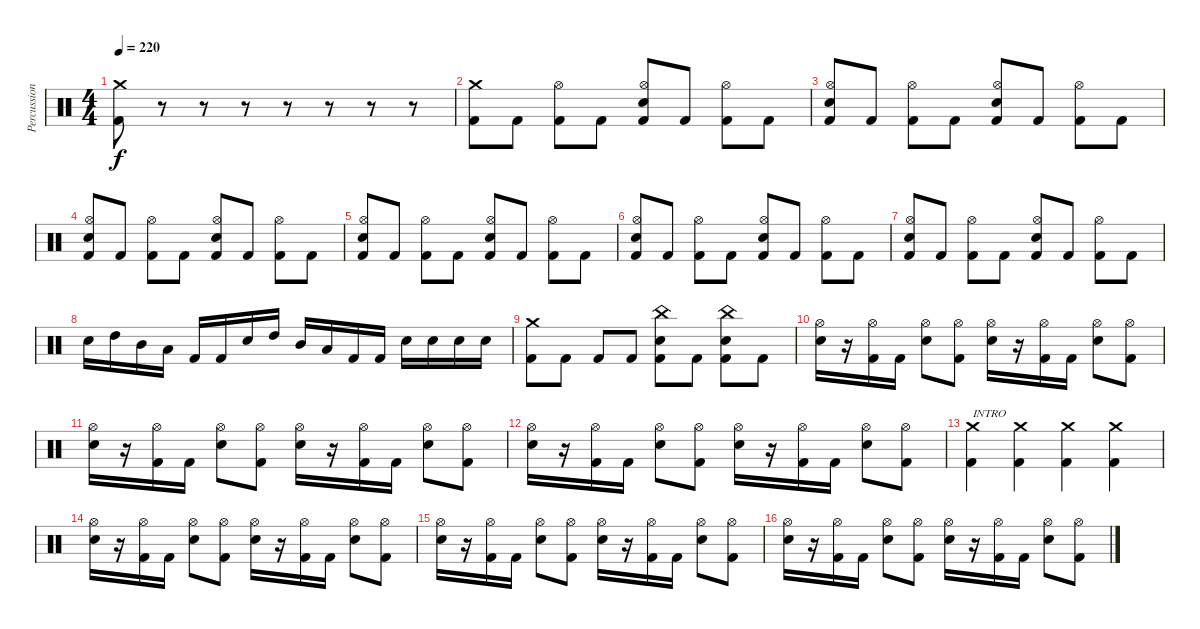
\track ("Percussion" "Percussion") {solo instrument percussion}
\staff {score}
\articulation defaults
\ts (4 4)
\tempo 220
\clef neutral
\ks c
("Crash medium (hit)" "Kick (hit) 2").8{dy f} r.8 r.8 r.8 r.8 r.8 r.8 r.8 |
("Crash medium (hit)" "Kick (hit) 2").8 "Kick (hit) 2".8 ("Hi-Hat (open)" "Kick (hit) 2").8 "Kick (hit) 2".8 ("Hi-Hat (open)" "Electric Snare (hit)" "Kick (hit) 2").8 "Kick (hit) 2".8 ("Hi-Hat (open)" "Kick (hit) 2").8 "Kick (hit) 2".8 |
("Hi-Hat (open)" "Electric Snare (hit)" "Kick (hit) 2").8 "Kick (hit) 2".8 ("Hi-Hat (open)" "Kick (hit) 2").8 "Kick (hit) 2".8 ("Hi-Hat (open)" "Electric Snare (hit)" "Kick (hit) 2").8 "Kick (hit) 2".8 ("Hi-Hat (open)" "Kick (hit) 2").8 "Kick (hit) 2".8 |
("Hi-Hat (open)" "Electric Snare (hit)" "Kick (hit) 2").8 "Kick (hit) 2".8 ("Hi-Hat (open)" "Kick (hit) 2").8 "Kick (hit) 2".8 ("Hi-Hat (open)" "Electric Snare (hit)" "Kick (hit) 2").8 "Kick (hit) 2".8 ("Hi-Hat (open)" "Kick (hit) 2").8 "Kick (hit) 2".8 |
("Hi-Hat (open)" "Electric Snare (hit)" "Kick (hit) 2").8 "Kick (hit) 2".8 ("Hi-Hat (open)" "Kick (hit) 2").8 "Kick (hit) 2".8 ("Hi-Hat (open)" "Electric Snare (hit)" "Kick (hit) 2").8 "Kick (hit) 2".8 ("Hi-Hat (open)" "Kick (hit) 2").8 "Kick (hit) 2".8 |
("Hi-Hat (open)" "Electric Snare (hit)" "Kick (hit) 2").8 "Kick (hit) 2".8 ("Hi-Hat (open)" "Kick (hit) 2").8 "Kick (hit) 2".8 ("Hi-Hat (open)" "Electric Snare (hit)" "Kick (hit) 2").8 "Kick (hit) 2".8 ("Hi-Hat (open)" "Kick (hit) 2").8 "Kick (hit) 2".8 |
("Hi-Hat (open)" "Electric Snare (hit)" "Kick (hit) 2").8 "Kick (hit) 2".8 ("Hi-Hat (open)" "Kick (hit) 2").8 "Kick (hit) 2".8 ("Hi-Hat (open)" "Electric Snare (hit)" "Kick (hit) 2").8 "Kick (hit) 2".8 ("Hi-Hat (open)" "Kick (hit) 2").8 "Kick (hit) 2".8 |
"Electric Snare (hit)".16 "High Tom (hit)".16 "Mid Tom (hit)".16 "Low Floor Tom (hit)".16 "Kick (hit) 2".16 "Kick (hit) 2".16 "Electric Snare (hit)".16 "High Tom (hit)".16 "Mid Tom (hit)".16 "Low Floor Tom (hit)".16 "Kick (hit) 2".16 "Kick (hit) 2".16 "Electric Snare (hit)".16 "Electric Snare (hit)".16 "Electric Snare (hit)".16 "Electric Snare (hit)".16 |
("Crash medium (hit)" "Kick (hit) 2").8 "Kick (hit) 2".8 "Kick (hit) 2".8 "Kick (hit) 2".8 ("China (hit)" "Electric Snare (hit)" "Kick (hit) 2").8 "Kick (hit) 2".8 ("China (hit)" "Electric Snare (hit)" "Kick (hit) 2").8 "Kick (hit) 2".8 |
("Hi-Hat (open)" "Electric Snare (hit)").16 r.16 ("Hi-Hat (open)" "Kick (hit) 2").16 "Kick (hit) 2".16 ("Hi-Hat (open)" "Electric Snare (hit)").8 ("Hi-Hat (open)" "Kick (hit) 2").8 ("Hi-Hat (open)" "Electric Snare (hit)").16 r.16 ("Hi-Hat (open)" "Kick (hit) 2").16 "Kick (hit) 2".16 ("Hi-Hat (open)" "Electric Snare (hit)").8 ("Hi-Hat (open)" "Kick (hit) 2").8 |
("Hi-Hat (open)" "Electric Snare (hit)").16 r.16 ("Hi-Hat (open)" "Kick (hit) 2").16 "Kick (hit) 2".16 ("Hi-Hat (open)" "Electric Snare (hit)").8 ("Hi-Hat (open)" "Kick (hit) 2").8 ("Hi-Hat (open)" "Electric Snare (hit)").16 r.16 ("Hi-Hat (open)" "Kick (hit) 2").16 "Kick (hit) 2".16 ("Hi-Hat (open)" "Electric Snare (hit)").8 ("Hi-Hat (open)" "Kick (hit) 2").8 |
("Hi-Hat (open)" "Electric Snare (hit)").16 r.16 ("Hi-Hat (open)" "Kick (hit) 2").16 "Kick (hit) 2".16 ("Hi-Hat (open)" "Electric Snare (hit)").8 ("Hi-Hat (open)" "Kick (hit) 2").8 ("Hi-Hat (open)" "Electric Snare (hit)").16 r.16 ("Hi-Hat (open)" "Kick (hit) 2").16 "Kick (hit) 2".16 ("Hi-Hat (open)" "Electric Snare (hit)").8 ("Hi-Hat (open)" "Kick (hit) 2").8 |
("Crash medium (hit)" "Kick (hit) 2").4{txt "INTRO"} ("Crash medium (hit)" "Kick (hit) 2").4 ("Crash medium (hit)" "Kick (hit) 2").4 ("Crash medium (hit)" "Kick (hit) 2").4 |
("Hi-Hat (open)" "Electric Snare (hit)").16 r.16 ("Hi-Hat (open)" "Kick (hit) 2").16 "Kick (hit) 2".16 ("Hi-Hat (open)" "Electric Snare (hit)").8 ("Hi-Hat (open)" "Kick (hit) 2").8 ("Hi-Hat (open)" "Electric Snare (hit)").16 r.16 ("Hi-Hat (open)" "Kick (hit) 2").16 "Kick (hit) 2".16 ("Hi-Hat (open)" "Electric Snare (hit)").8 ("Hi-Hat (open)" "Kick (hit) 2").8 |
("Hi-Hat (open)" "Electric Snare (hit)").16 r.16 ("Hi-Hat (open)" "Kick (hit) 2").16 "Kick (hit) 2".16 ("Hi-Hat (open)" "Electric Snare (hit)").8 ("Hi-Hat (open)" "Kick (hit) 2").8 ("Hi-Hat (open)" "Electric Snare (hit)").16 r.16 ("Hi-Hat (open)" "Kick (hit) 2").16 "Kick (hit) 2".16 ("Hi-Hat (open)" "Electric Snare (hit)").8 ("Hi-Hat (open)" "Kick (hit) 2").8 |
("Hi-Hat (open)" "Electric Snare (hit)").16 r.16 ("Hi-Hat (open)" "Kick (hit) 2").16 "Kick (hit) 2".16 ("Hi-Hat (open)" "Electric Snare (hit)").8 ("Hi-Hat (open)" "Kick (hit) 2").8 ("Hi-Hat (open)" "Electric Snare (hit)").16 r.16 ("Hi-Hat (open)" "Kick (hit) 2").16 "Kick (hit) 2".16 ("Hi-Hat (open)" "Electric Snare (hit)").8 ("Hi-Hat (open)" "Kick (hit) 2").8
